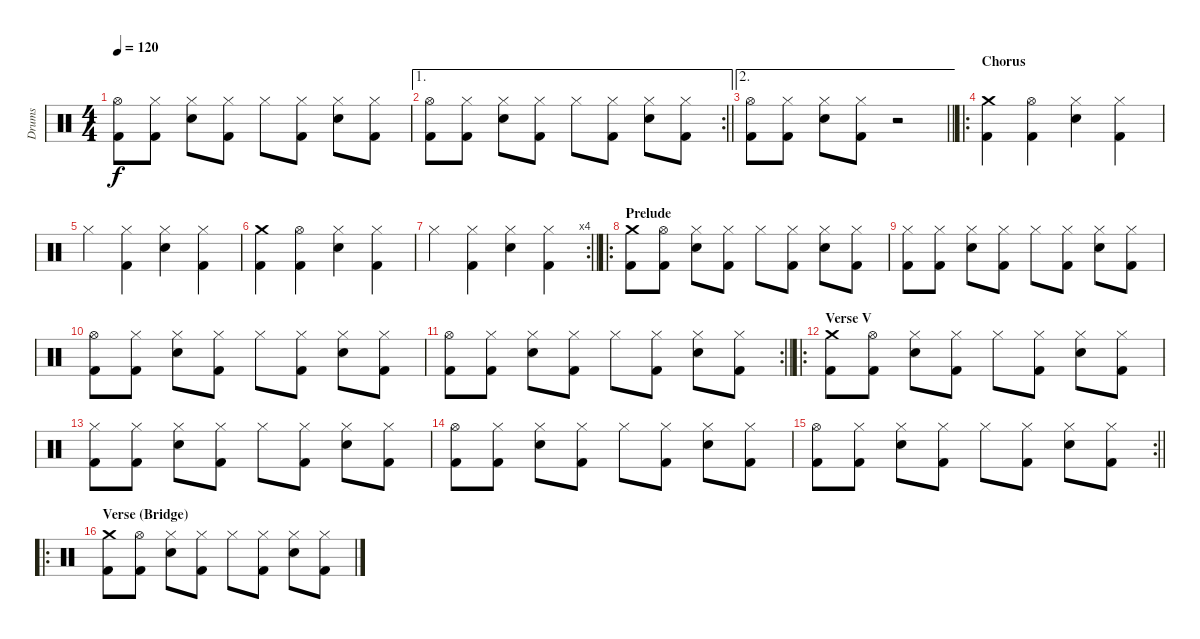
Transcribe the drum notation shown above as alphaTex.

\track ("Drums" "Drums") {instrument percussion}
\staff {score}
\articulation defaults
\ts (4 4)
\tempo 120
\clef neutral
\ks c
("Kick (hit) 2" "Hi-Hat (open)").8{dy f} ("Kick (hit) 2" "Hi-Hat (closed)").8 ("Snare (hit) 2" "Hi-Hat (closed)").8 ("Kick (hit) 2" "Hi-Hat (closed)").8 "Hi-Hat (closed)".8 ("Kick (hit) 2" "Hi-Hat (closed)").8 ("Snare (hit) 2" "Hi-Hat (closed)").8 ("Kick (hit) 2" "Hi-Hat (closed)").8 |
\ae 1
\rc 2
\barLineRight lightlight
("Kick (hit) 2" "Hi-Hat (open)").8 ("Kick (hit) 2" "Hi-Hat (closed)").8 ("Snare (hit) 2" "Hi-Hat (closed)").8 ("Kick (hit) 2" "Hi-Hat (closed)").8 "Hi-Hat (closed)".8 ("Kick (hit) 2" "Hi-Hat (closed)").8 ("Snare (hit) 2" "Hi-Hat (closed)").8 ("Kick (hit) 2" "Hi-Hat (closed)").8 |
\ae 2
\barLineRight lightlight
("Kick (hit) 2" "Hi-Hat (open)").8 ("Kick (hit) 2" "Hi-Hat (closed)").8 ("Snare (hit) 2" "Hi-Hat (closed)").8 ("Kick (hit) 2" "Hi-Hat (closed)").8 r.2 |
\ro
\section ("" "Chorus")
("Kick (hit) 2" "Crash medium (hit)").4 ("Kick (hit) 2" "Hi-Hat (open)").4 ("Snare (hit) 2" "Hi-Hat (closed)").4 ("Kick (hit) 2" "Hi-Hat (closed)").4 |
"Hi-Hat (closed)".4 ("Kick (hit) 2" "Hi-Hat (closed)").4 ("Snare (hit) 2" "Hi-Hat (closed)").4 ("Kick (hit) 2" "Hi-Hat (closed)").4 |
("Kick (hit) 2" "Crash medium (hit)").4 ("Kick (hit) 2" "Hi-Hat (open)").4 ("Snare (hit) 2" "Hi-Hat (closed)").4 ("Kick (hit) 2" "Hi-Hat (closed)").4 |
\rc 4
\barLineRight lightlight "Hi-Hat (closed)".4
("Kick (hit) 2" "Hi-Hat (closed)").4 ("Snare (hit) 2" "Hi-Hat (closed)").4 ("Kick (hit) 2" "Hi-Hat (closed)").4 |
\ro
\section ("" "Prelude")
("Kick (hit) 2" "Crash medium (hit)").8 ("Kick (hit) 2" "Hi-Hat (open)").8 ("Snare (hit) 2" "Hi-Hat (closed)").8 ("Kick (hit) 2" "Hi-Hat (closed)").8 "Hi-Hat (closed)".8 ("Kick (hit) 2" "Hi-Hat (closed)").8 ("Snare (hit) 2" "Hi-Hat (closed)").8 ("Kick (hit) 2" "Hi-Hat (closed)").8 |
("Kick (hit) 2" "Hi-Hat (closed)").8 ("Kick (hit) 2" "Hi-Hat (closed)").8 ("Snare (hit) 2" "Hi-Hat (closed)").8 ("Kick (hit) 2" "Hi-Hat (closed)").8 "Hi-Hat (closed)".8 ("Kick (hit) 2" "Hi-Hat (closed)").8 ("Snare (hit) 2" "Hi-Hat (closed)").8 ("Kick (hit) 2" "Hi-Hat (closed)").8 |
("Kick (hit) 2" "Hi-Hat (open)").8 ("Kick (hit) 2" "Hi-Hat (closed)").8 ("Snare (hit) 2" "Hi-Hat (closed)").8 ("Kick (hit) 2" "Hi-Hat (closed)").8 "Hi-Hat (closed)".8 ("Kick (hit) 2" "Hi-Hat (closed)").8 ("Snare (hit) 2" "Hi-Hat (closed)").8 ("Kick (hit) 2" "Hi-Hat (closed)").8 |
\rc 2
\barLineRight lightlight
("Kick (hit) 2" "Hi-Hat (open)").8 ("Kick (hit) 2" "Hi-Hat (closed)").8 ("Snare (hit) 2" "Hi-Hat (closed)").8 ("Kick (hit) 2" "Hi-Hat (closed)").8 "Hi-Hat (closed)".8 ("Kick (hit) 2" "Hi-Hat (closed)").8 ("Snare (hit) 2" "Hi-Hat (closed)").8 ("Kick (hit) 2" "Hi-Hat (closed)").8 |
\ro
\section ("" "Verse V")
("Kick (hit) 2" "Crash medium (hit)").8 ("Kick (hit) 2" "Hi-Hat (open)").8 ("Snare (hit) 2" "Hi-Hat (closed)").8 ("Kick (hit) 2" "Hi-Hat (closed)").8 "Hi-Hat (closed)".8 ("Kick (hit) 2" "Hi-Hat (closed)").8 ("Snare (hit) 2" "Hi-Hat (closed)").8 ("Kick (hit) 2" "Hi-Hat (closed)").8 |
("Kick (hit) 2" "Hi-Hat (closed)").8 ("Kick (hit) 2" "Hi-Hat (closed)").8 ("Snare (hit) 2" "Hi-Hat (closed)").8 ("Kick (hit) 2" "Hi-Hat (closed)").8 "Hi-Hat (closed)".8 ("Kick (hit) 2" "Hi-Hat (closed)").8 ("Snare (hit) 2" "Hi-Hat (closed)").8 ("Kick (hit) 2" "Hi-Hat (closed)").8 |
("Kick (hit) 2" "Hi-Hat (open)").8 ("Kick (hit) 2" "Hi-Hat (closed)").8 ("Snare (hit) 2" "Hi-Hat (closed)").8 ("Kick (hit) 2" "Hi-Hat (closed)").8 "Hi-Hat (closed)".8 ("Kick (hit) 2" "Hi-Hat (closed)").8 ("Snare (hit) 2" "Hi-Hat (closed)").8 ("Kick (hit) 2" "Hi-Hat (closed)").8 |
\rc 2
\barLineRight lightlight
("Kick (hit) 2" "Hi-Hat (open)").8 ("Kick (hit) 2" "Hi-Hat (closed)").8 ("Snare (hit) 2" "Hi-Hat (closed)").8 ("Kick (hit) 2" "Hi-Hat (closed)").8 "Hi-Hat (closed)".8 ("Kick (hit) 2" "Hi-Hat (closed)").8 ("Snare (hit) 2" "Hi-Hat (closed)").8 ("Kick (hit) 2" "Hi-Hat (closed)").8 |
\ro
\section ("" "Verse (Bridge)")
("Kick (hit) 2" "Crash medium (hit)").8 ("Kick (hit) 2" "Hi-Hat (open)").8 ("Snare (hit) 2" "Hi-Hat (closed)").8 ("Kick (hit) 2" "Hi-Hat (closed)").8 "Hi-Hat (closed)".8 ("Kick (hit) 2" "Hi-Hat (closed)").8 ("Snare (hit) 2" "Hi-Hat (closed)").8 ("Kick (hit) 2" "Hi-Hat (closed)").8
